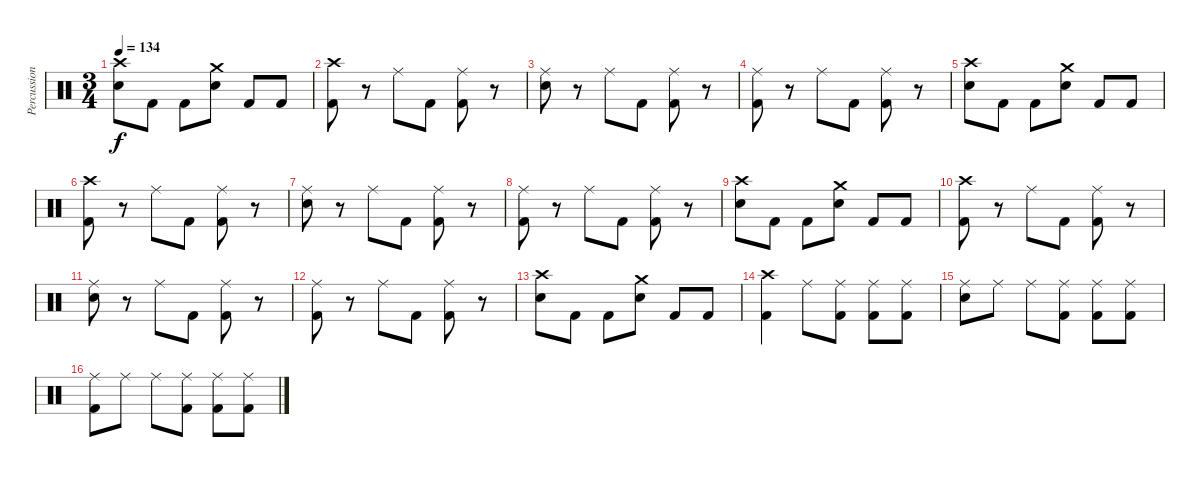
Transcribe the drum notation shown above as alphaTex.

\track ("Percussion" "Percussion") {instrument percussion}
\staff {score}
\articulation defaults
\ts (3 4)
\tempo 134
\clef neutral
\ks c
("Crash high (hit)" "Snare (hit) 2").8{dy f} "Kick (hit) 2".8 "Kick (hit) 2".8 ("Crash medium (hit)" "Snare (hit) 2").8 "Kick (hit) 2".8 "Kick (hit) 2".8 |
("Crash high (hit)" "Kick (hit) 2").8 r.8 "Ride (middle)".8 "Kick (hit) 2".8 ("Ride (middle)" "Kick (hit) 2").8 r.8 |
("Ride (middle)" "Snare (hit) 2").8 r.8 "Ride (middle)".8 "Kick (hit) 2".8 ("Ride (middle)" "Kick (hit) 2").8 r.8 |
("Ride (middle)" "Kick (hit) 2").8 r.8 "Ride (middle)".8 "Kick (hit) 2".8 ("Ride (middle)" "Kick (hit) 2").8 r.8 |
("Crash high (hit)" "Snare (hit) 2").8 "Kick (hit) 2".8 "Kick (hit) 2".8 ("Crash medium (hit)" "Snare (hit) 2").8 "Kick (hit) 2".8 "Kick (hit) 2".8 |
("Crash high (hit)" "Kick (hit) 2").8 r.8 "Ride (middle)".8 "Kick (hit) 2".8 ("Ride (middle)" "Kick (hit) 2").8 r.8 |
("Ride (middle)" "Snare (hit) 2").8 r.8 "Ride (middle)".8 "Kick (hit) 2".8 ("Ride (middle)" "Kick (hit) 2").8 r.8 |
("Ride (middle)" "Kick (hit) 2").8 r.8 "Ride (middle)".8 "Kick (hit) 2".8 ("Ride (middle)" "Kick (hit) 2").8 r.8 |
("Crash high (hit)" "Snare (hit) 2").8 "Kick (hit) 2".8 "Kick (hit) 2".8 ("Crash medium (hit)" "Snare (hit) 2").8 "Kick (hit) 2".8 "Kick (hit) 2".8 |
("Crash high (hit)" "Kick (hit) 2").8 r.8 "Ride (middle)".8 "Kick (hit) 2".8 ("Ride (middle)" "Kick (hit) 2").8 r.8 |
("Ride (middle)" "Snare (hit) 2").8 r.8 "Ride (middle)".8 "Kick (hit) 2".8 ("Ride (middle)" "Kick (hit) 2").8 r.8 |
("Ride (middle)" "Kick (hit) 2").8 r.8 "Ride (middle)".8 "Kick (hit) 2".8 ("Ride (middle)" "Kick (hit) 2").8 r.8 |
("Crash high (hit)" "Snare (hit) 2").8 "Kick (hit) 2".8 "Kick (hit) 2".8 ("Crash medium (hit)" "Snare (hit) 2").8 "Kick (hit) 2".8 "Kick (hit) 2".8 |
("Crash high (hit)" "Kick (hit) 2").4 "Ride (middle)".8 ("Ride (middle)" "Kick (hit) 2").8 ("Ride (middle)" "Kick (hit) 2").8 ("Ride (middle)" "Kick (hit) 2").8 |
("Ride (middle)" "Snare (hit) 2").8 "Ride (middle)".8 "Ride (middle)".8 ("Ride (middle)" "Kick (hit) 2").8 ("Ride (middle)" "Kick (hit) 2").8 ("Ride (middle)" "Kick (hit) 2").8 |
("Ride (middle)" "Kick (hit) 2").8 "Ride (middle)".8 "Ride (middle)".8 ("Ride (middle)" "Kick (hit) 2").8 ("Ride (middle)" "Kick (hit) 2").8 ("Ride (middle)" "Kick (hit) 2").8
